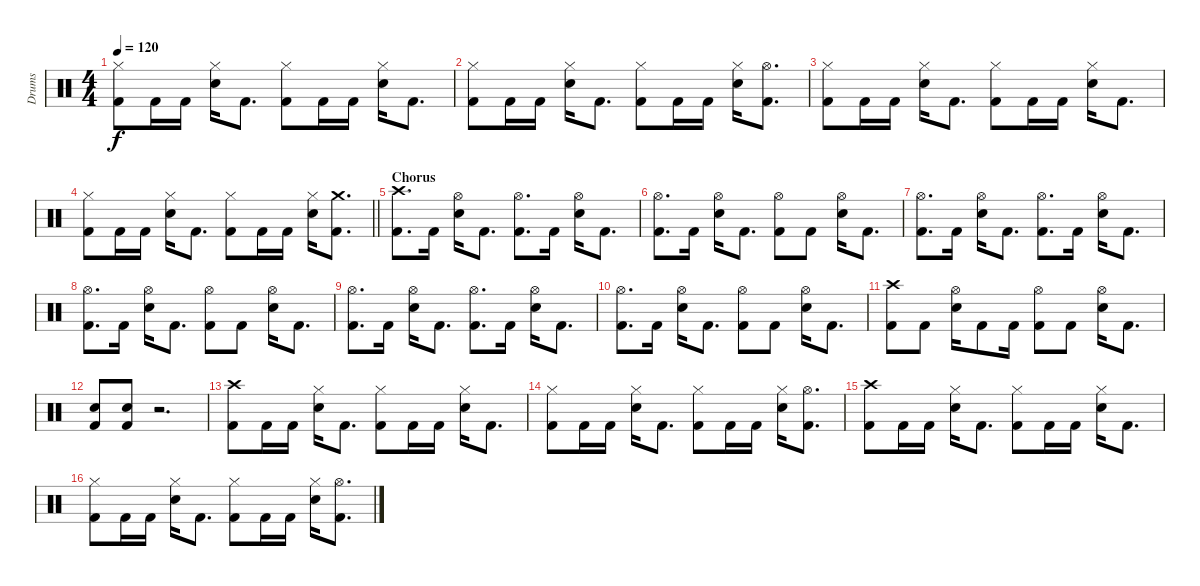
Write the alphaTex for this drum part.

\track ("Drums" "Drums") {instrument percussion}
\staff {score}
\articulation defaults
\ts (4 4)
\tempo 120
\clef neutral
\ks c
("Hi-Hat (closed)" "Kick (hit) 2").8{dy f} "Kick (hit) 2".16 "Kick (hit) 2".16 ("Hi-Hat (closed)" "Snare (hit) 2").16 "Kick (hit) 2".8{d} ("Hi-Hat (closed)" "Kick (hit) 2").8 "Kick (hit) 2".16 "Kick (hit) 2".16 ("Hi-Hat (closed)" "Snare (hit) 2").16 "Kick (hit) 2".8{d} |
("Hi-Hat (closed)" "Kick (hit) 2").8 "Kick (hit) 2".16 "Kick (hit) 2".16 ("Hi-Hat (closed)" "Snare (hit) 2").16 "Kick (hit) 2".8{d} ("Hi-Hat (closed)" "Kick (hit) 2").8 "Kick (hit) 2".16 "Kick (hit) 2".16 ("Hi-Hat (closed)" "Snare (hit) 2").16 ("Hi-Hat (open)" "Kick (hit) 2").8{d} |
("Hi-Hat (closed)" "Kick (hit) 2").8 "Kick (hit) 2".16 "Kick (hit) 2".16 ("Hi-Hat (closed)" "Snare (hit) 2").16 "Kick (hit) 2".8{d} ("Hi-Hat (closed)" "Kick (hit) 2").8 "Kick (hit) 2".16 "Kick (hit) 2".16 ("Hi-Hat (closed)" "Snare (hit) 2").16 "Kick (hit) 2".8{d} |
\barLineRight lightlight
("Hi-Hat (closed)" "Kick (hit) 2").8 "Kick (hit) 2".16 "Kick (hit) 2".16 ("Hi-Hat (closed)" "Snare (hit) 2").16 "Kick (hit) 2".8{d} ("Hi-Hat (closed)" "Kick (hit) 2").8 "Kick (hit) 2".16 "Kick (hit) 2".16 ("Hi-Hat (closed)" "Snare (hit) 2").16 ("Crash medium (hit)" "Kick (hit) 2").8{d} |
\section ("" "Chorus")
("Crash high (hit)" "Kick (hit) 2").8{d} "Kick (hit) 2".16 ("Hi-Hat (open)" "Electric Snare (hit)").16 "Kick (hit) 2".8{d} ("Hi-Hat (open)" "Kick (hit) 2").8{d} "Kick (hit) 2".16 ("Hi-Hat (open)" "Electric Snare (hit)").16 "Kick (hit) 2".8{d} |
("Hi-Hat (open)" "Kick (hit) 2").8{d} "Kick (hit) 2".16 ("Hi-Hat (open)" "Electric Snare (hit)").16 "Kick (hit) 2".8{d} ("Hi-Hat (open)" "Kick (hit) 2").8 "Kick (hit) 2".8 ("Hi-Hat (open)" "Electric Snare (hit)").16 "Kick (hit) 2".8{d} |
("Hi-Hat (open)" "Kick (hit) 2").8{d} "Kick (hit) 2".16 ("Hi-Hat (open)" "Electric Snare (hit)").16 "Kick (hit) 2".8{d} ("Hi-Hat (open)" "Kick (hit) 2").8{d} "Kick (hit) 2".16 ("Hi-Hat (open)" "Electric Snare (hit)").16 "Kick (hit) 2".8{d} |
("Hi-Hat (open)" "Kick (hit) 2").8{d} "Kick (hit) 2".16 ("Hi-Hat (open)" "Electric Snare (hit)").16 "Kick (hit) 2".8{d} ("Hi-Hat (open)" "Kick (hit) 2").8 "Kick (hit) 2".8 ("Hi-Hat (open)" "Electric Snare (hit)").16 "Kick (hit) 2".8{d} |
("Hi-Hat (open)" "Kick (hit) 2").8{d} "Kick (hit) 2".16 ("Hi-Hat (open)" "Electric Snare (hit)").16 "Kick (hit) 2".8{d} ("Hi-Hat (open)" "Kick (hit) 2").8{d} "Kick (hit) 2".16 ("Hi-Hat (open)" "Electric Snare (hit)").16 "Kick (hit) 2".8{d} |
("Hi-Hat (open)" "Kick (hit) 2").8{d} "Kick (hit) 2".16 ("Hi-Hat (open)" "Electric Snare (hit)").16 "Kick (hit) 2".8{d} ("Hi-Hat (open)" "Kick (hit) 2").8 "Kick (hit) 2".8 ("Hi-Hat (open)" "Electric Snare (hit)").16 "Kick (hit) 2".8{d} |
("Crash high (hit)" "Kick (hit) 2").8 "Kick (hit) 2".8 ("Hi-Hat (open)" "Electric Snare (hit)").16 "Kick (hit) 2".8 "Kick (hit) 2".16 ("Hi-Hat (open)" "Kick (hit) 2").8 "Kick (hit) 2".8 ("Hi-Hat (open)" "Electric Snare (hit)").16 "Kick (hit) 2".8{d} |
("Snare (hit) 2" "Kick (hit) 2").8 ("Snare (hit) 2" "Kick (hit) 2").8 r.2{d} |
("Crash high (hit)" "Kick (hit) 2").8 "Kick (hit) 2".16 "Kick (hit) 2".16 ("Hi-Hat (closed)" "Snare (hit) 2").16 "Kick (hit) 2".8{d} ("Hi-Hat (closed)" "Kick (hit) 2").8 "Kick (hit) 2".16 "Kick (hit) 2".16 ("Hi-Hat (closed)" "Snare (hit) 2").16 "Kick (hit) 2".8{d} |
("Hi-Hat (closed)" "Kick (hit) 2").8 "Kick (hit) 2".16 "Kick (hit) 2".16 ("Hi-Hat (closed)" "Snare (hit) 2").16 "Kick (hit) 2".8{d} ("Hi-Hat (closed)" "Kick (hit) 2").8 "Kick (hit) 2".16 "Kick (hit) 2".16 ("Hi-Hat (closed)" "Snare (hit) 2").16 ("Hi-Hat (open)" "Kick (hit) 2").8{d} |
("Crash high (hit)" "Kick (hit) 2").8 "Kick (hit) 2".16 "Kick (hit) 2".16 ("Hi-Hat (closed)" "Snare (hit) 2").16 "Kick (hit) 2".8{d} ("Hi-Hat (closed)" "Kick (hit) 2").8 "Kick (hit) 2".16 "Kick (hit) 2".16 ("Hi-Hat (closed)" "Snare (hit) 2").16 "Kick (hit) 2".8{d} |
("Hi-Hat (closed)" "Kick (hit) 2").8 "Kick (hit) 2".16 "Kick (hit) 2".16 ("Hi-Hat (closed)" "Snare (hit) 2").16 "Kick (hit) 2".8{d} ("Hi-Hat (closed)" "Kick (hit) 2").8 "Kick (hit) 2".16 "Kick (hit) 2".16 ("Hi-Hat (closed)" "Snare (hit) 2").16 ("Hi-Hat (open)" "Kick (hit) 2").8{d}
